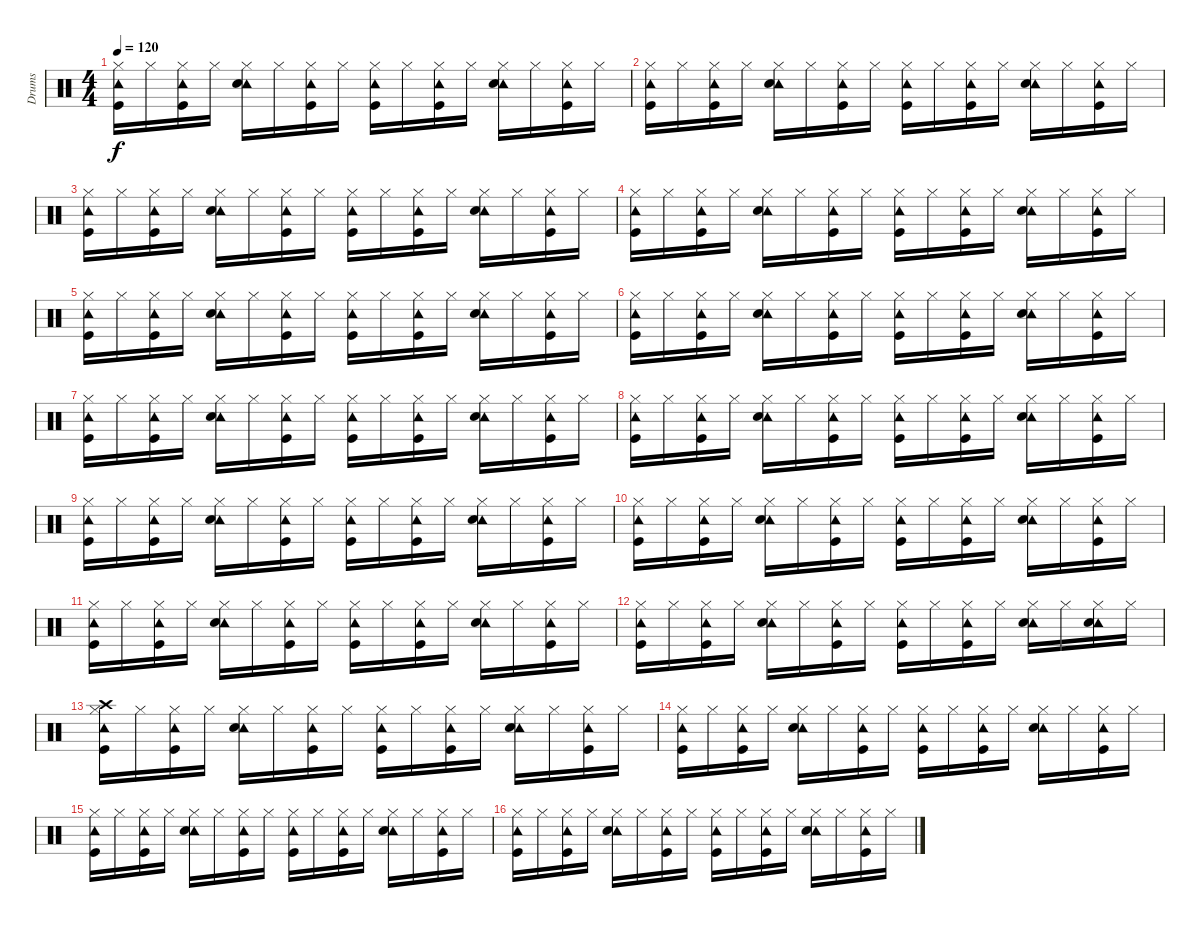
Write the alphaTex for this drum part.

\track ("Drums" "Drums") {instrument percussion}
\staff {score}
\articulation defaults
\ts (4 4)
\tempo 120
\clef neutral
\ks c
("Hi-Hat (closed)" "Tambourine (hit)" "Kick (hit)").16{dy f} "Hi-Hat (closed)".16 ("Hi-Hat (closed)" "Tambourine (hit)" "Kick (hit)").16 "Hi-Hat (closed)".16 ("Hi-Hat (closed)" "Tambourine (hit)" "Snare (hit) 2").16 "Hi-Hat (closed)".16 ("Hi-Hat (closed)" "Tambourine (hit)" "Kick (hit)").16 "Hi-Hat (closed)".16 ("Hi-Hat (closed)" "Tambourine (hit)" "Kick (hit)").16 "Hi-Hat (closed)".16 ("Hi-Hat (closed)" "Tambourine (hit)" "Kick (hit)").16 "Hi-Hat (closed)".16 ("Hi-Hat (closed)" "Tambourine (hit)" "Snare (hit) 2").16 "Hi-Hat (closed)".16 ("Hi-Hat (closed)" "Tambourine (hit)" "Kick (hit)").16 "Hi-Hat (closed)".16 |
("Hi-Hat (closed)" "Tambourine (hit)" "Kick (hit)").16 "Hi-Hat (closed)".16 ("Hi-Hat (closed)" "Tambourine (hit)" "Kick (hit)").16 "Hi-Hat (closed)".16 ("Hi-Hat (closed)" "Tambourine (hit)" "Snare (hit) 2").16 "Hi-Hat (closed)".16 ("Hi-Hat (closed)" "Tambourine (hit)" "Kick (hit)").16 "Hi-Hat (closed)".16 ("Hi-Hat (closed)" "Tambourine (hit)" "Kick (hit)").16 "Hi-Hat (closed)".16 ("Hi-Hat (closed)" "Tambourine (hit)" "Kick (hit)").16 "Hi-Hat (closed)".16 ("Hi-Hat (closed)" "Tambourine (hit)" "Snare (hit) 2").16 "Hi-Hat (closed)".16 ("Hi-Hat (closed)" "Tambourine (hit)" "Kick (hit)").16 "Hi-Hat (closed)".16 |
("Hi-Hat (closed)" "Tambourine (hit)" "Kick (hit)").16 "Hi-Hat (closed)".16 ("Hi-Hat (closed)" "Tambourine (hit)" "Kick (hit)").16 "Hi-Hat (closed)".16 ("Hi-Hat (closed)" "Tambourine (hit)" "Snare (hit) 2").16 "Hi-Hat (closed)".16 ("Hi-Hat (closed)" "Tambourine (hit)" "Kick (hit)").16 "Hi-Hat (closed)".16 ("Hi-Hat (closed)" "Tambourine (hit)" "Kick (hit)").16 "Hi-Hat (closed)".16 ("Hi-Hat (closed)" "Tambourine (hit)" "Kick (hit)").16 "Hi-Hat (closed)".16 ("Hi-Hat (closed)" "Tambourine (hit)" "Snare (hit) 2").16 "Hi-Hat (closed)".16 ("Hi-Hat (closed)" "Tambourine (hit)" "Kick (hit)").16 "Hi-Hat (closed)".16 |
("Hi-Hat (closed)" "Tambourine (hit)" "Kick (hit)").16 "Hi-Hat (closed)".16 ("Hi-Hat (closed)" "Tambourine (hit)" "Kick (hit)").16 "Hi-Hat (closed)".16 ("Hi-Hat (closed)" "Tambourine (hit)" "Snare (hit) 2").16 "Hi-Hat (closed)".16 ("Hi-Hat (closed)" "Tambourine (hit)" "Kick (hit)").16 "Hi-Hat (closed)".16 ("Hi-Hat (closed)" "Tambourine (hit)" "Kick (hit)").16 "Hi-Hat (closed)".16 ("Hi-Hat (closed)" "Tambourine (hit)" "Kick (hit)").16 "Hi-Hat (closed)".16 ("Hi-Hat (closed)" "Tambourine (hit)" "Snare (hit) 2").16 "Hi-Hat (closed)".16 ("Hi-Hat (closed)" "Tambourine (hit)" "Kick (hit)").16 "Hi-Hat (closed)".16 |
("Hi-Hat (closed)" "Tambourine (hit)" "Kick (hit)").16 "Hi-Hat (closed)".16 ("Hi-Hat (closed)" "Tambourine (hit)" "Kick (hit)").16 "Hi-Hat (closed)".16 ("Hi-Hat (closed)" "Tambourine (hit)" "Snare (hit) 2").16 "Hi-Hat (closed)".16 ("Hi-Hat (closed)" "Tambourine (hit)" "Kick (hit)").16 "Hi-Hat (closed)".16 ("Hi-Hat (closed)" "Tambourine (hit)" "Kick (hit)").16 "Hi-Hat (closed)".16 ("Hi-Hat (closed)" "Tambourine (hit)" "Kick (hit)").16 "Hi-Hat (closed)".16 ("Hi-Hat (closed)" "Tambourine (hit)" "Snare (hit) 2").16 "Hi-Hat (closed)".16 ("Hi-Hat (closed)" "Tambourine (hit)" "Kick (hit)").16 "Hi-Hat (closed)".16 |
("Hi-Hat (closed)" "Tambourine (hit)" "Kick (hit)").16 "Hi-Hat (closed)".16 ("Hi-Hat (closed)" "Tambourine (hit)" "Kick (hit)").16 "Hi-Hat (closed)".16 ("Hi-Hat (closed)" "Tambourine (hit)" "Snare (hit) 2").16 "Hi-Hat (closed)".16 ("Hi-Hat (closed)" "Tambourine (hit)" "Kick (hit)").16 "Hi-Hat (closed)".16 ("Hi-Hat (closed)" "Tambourine (hit)" "Kick (hit)").16 "Hi-Hat (closed)".16 ("Hi-Hat (closed)" "Tambourine (hit)" "Kick (hit)").16 "Hi-Hat (closed)".16 ("Hi-Hat (closed)" "Tambourine (hit)" "Snare (hit) 2").16 "Hi-Hat (closed)".16 ("Hi-Hat (closed)" "Tambourine (hit)" "Kick (hit)").16 "Hi-Hat (closed)".16 |
("Hi-Hat (closed)" "Tambourine (hit)" "Kick (hit)").16 "Hi-Hat (closed)".16 ("Hi-Hat (closed)" "Tambourine (hit)" "Kick (hit)").16 "Hi-Hat (closed)".16 ("Hi-Hat (closed)" "Tambourine (hit)" "Snare (hit) 2").16 "Hi-Hat (closed)".16 ("Hi-Hat (closed)" "Tambourine (hit)" "Kick (hit)").16 "Hi-Hat (closed)".16 ("Hi-Hat (closed)" "Tambourine (hit)" "Kick (hit)").16 "Hi-Hat (closed)".16 ("Hi-Hat (closed)" "Tambourine (hit)" "Kick (hit)").16 "Hi-Hat (closed)".16 ("Hi-Hat (closed)" "Tambourine (hit)" "Snare (hit) 2").16 "Hi-Hat (closed)".16 ("Hi-Hat (closed)" "Tambourine (hit)" "Kick (hit)").16 "Hi-Hat (closed)".16 |
("Hi-Hat (closed)" "Tambourine (hit)" "Kick (hit)").16 "Hi-Hat (closed)".16 ("Hi-Hat (closed)" "Tambourine (hit)" "Kick (hit)").16 "Hi-Hat (closed)".16 ("Hi-Hat (closed)" "Tambourine (hit)" "Snare (hit) 2").16 "Hi-Hat (closed)".16 ("Hi-Hat (closed)" "Tambourine (hit)" "Kick (hit)").16 "Hi-Hat (closed)".16 ("Hi-Hat (closed)" "Tambourine (hit)" "Kick (hit)").16 "Hi-Hat (closed)".16 ("Hi-Hat (closed)" "Tambourine (hit)" "Kick (hit)").16 "Hi-Hat (closed)".16 ("Hi-Hat (closed)" "Tambourine (hit)" "Snare (hit) 2").16 "Hi-Hat (closed)".16 ("Hi-Hat (closed)" "Tambourine (hit)" "Kick (hit)").16 "Hi-Hat (closed)".16 |
("Hi-Hat (closed)" "Tambourine (hit)" "Kick (hit)").16 "Hi-Hat (closed)".16 ("Hi-Hat (closed)" "Tambourine (hit)" "Kick (hit)").16 "Hi-Hat (closed)".16 ("Hi-Hat (closed)" "Tambourine (hit)" "Snare (hit) 2").16 "Hi-Hat (closed)".16 ("Hi-Hat (closed)" "Tambourine (hit)" "Kick (hit)").16 "Hi-Hat (closed)".16 ("Hi-Hat (closed)" "Tambourine (hit)" "Kick (hit)").16 "Hi-Hat (closed)".16 ("Hi-Hat (closed)" "Tambourine (hit)" "Kick (hit)").16 "Hi-Hat (closed)".16 ("Hi-Hat (closed)" "Tambourine (hit)" "Snare (hit) 2").16 "Hi-Hat (closed)".16 ("Hi-Hat (closed)" "Tambourine (hit)" "Kick (hit)").16 "Hi-Hat (closed)".16 |
("Hi-Hat (closed)" "Tambourine (hit)" "Kick (hit)").16 "Hi-Hat (closed)".16 ("Hi-Hat (closed)" "Tambourine (hit)" "Kick (hit)").16 "Hi-Hat (closed)".16 ("Hi-Hat (closed)" "Tambourine (hit)" "Snare (hit) 2").16 "Hi-Hat (closed)".16 ("Hi-Hat (closed)" "Tambourine (hit)" "Kick (hit)").16 "Hi-Hat (closed)".16 ("Hi-Hat (closed)" "Tambourine (hit)" "Kick (hit)").16 "Hi-Hat (closed)".16 ("Hi-Hat (closed)" "Tambourine (hit)" "Kick (hit)").16 "Hi-Hat (closed)".16 ("Hi-Hat (closed)" "Tambourine (hit)" "Snare (hit) 2").16 "Hi-Hat (closed)".16 ("Hi-Hat (closed)" "Tambourine (hit)" "Kick (hit)").16 "Hi-Hat (closed)".16 |
("Hi-Hat (closed)" "Tambourine (hit)" "Kick (hit)").16 "Hi-Hat (closed)".16 ("Hi-Hat (closed)" "Tambourine (hit)" "Kick (hit)").16 "Hi-Hat (closed)".16 ("Hi-Hat (closed)" "Tambourine (hit)" "Snare (hit) 2").16 "Hi-Hat (closed)".16 ("Hi-Hat (closed)" "Tambourine (hit)" "Kick (hit)").16 "Hi-Hat (closed)".16 ("Hi-Hat (closed)" "Tambourine (hit)" "Kick (hit)").16 "Hi-Hat (closed)".16 ("Hi-Hat (closed)" "Tambourine (hit)" "Kick (hit)").16 "Hi-Hat (closed)".16 ("Hi-Hat (closed)" "Tambourine (hit)" "Snare (hit) 2").16 "Hi-Hat (closed)".16 ("Hi-Hat (closed)" "Tambourine (hit)" "Kick (hit)").16 "Hi-Hat (closed)".16 |
("Hi-Hat (closed)" "Tambourine (hit)" "Kick (hit)").16 "Hi-Hat (closed)".16 ("Hi-Hat (closed)" "Tambourine (hit)" "Kick (hit)").16 "Hi-Hat (closed)".16 ("Hi-Hat (closed)" "Tambourine (hit)" "Snare (hit) 2").16 "Hi-Hat (closed)".16 ("Hi-Hat (closed)" "Tambourine (hit)" "Kick (hit)").16 "Hi-Hat (closed)".16 ("Hi-Hat (closed)" "Tambourine (hit)" "Kick (hit)").16 "Hi-Hat (closed)".16 ("Hi-Hat (closed)" "Tambourine (hit)" "Kick (hit)").16 "Hi-Hat (closed)".16 ("Hi-Hat (closed)" "Tambourine (hit)" "Snare (hit) 2").16 "Hi-Hat (closed)".16 ("Hi-Hat (closed)" "Tambourine (hit)" "Snare (hit) 2").16 "Hi-Hat (closed)".16 |
("Crash high (hit)" "Hi-Hat (closed)" "Tambourine (hit)" "Kick (hit)").16 "Hi-Hat (closed)".16 ("Hi-Hat (closed)" "Tambourine (hit)" "Kick (hit)").16 "Hi-Hat (closed)".16 ("Hi-Hat (closed)" "Tambourine (hit)" "Snare (hit) 2").16 "Hi-Hat (closed)".16 ("Hi-Hat (closed)" "Tambourine (hit)" "Kick (hit)").16 "Hi-Hat (closed)".16 ("Hi-Hat (closed)" "Tambourine (hit)" "Kick (hit)").16 "Hi-Hat (closed)".16 ("Hi-Hat (closed)" "Tambourine (hit)" "Kick (hit)").16 "Hi-Hat (closed)".16 ("Hi-Hat (closed)" "Tambourine (hit)" "Snare (hit) 2").16 "Hi-Hat (closed)".16 ("Hi-Hat (closed)" "Tambourine (hit)" "Kick (hit)").16 "Hi-Hat (closed)".16 |
("Hi-Hat (closed)" "Tambourine (hit)" "Kick (hit)").16 "Hi-Hat (closed)".16 ("Hi-Hat (closed)" "Tambourine (hit)" "Kick (hit)").16 "Hi-Hat (closed)".16 ("Hi-Hat (closed)" "Tambourine (hit)" "Snare (hit) 2").16 "Hi-Hat (closed)".16 ("Hi-Hat (closed)" "Tambourine (hit)" "Kick (hit)").16 "Hi-Hat (closed)".16 ("Hi-Hat (closed)" "Tambourine (hit)" "Kick (hit)").16 "Hi-Hat (closed)".16 ("Hi-Hat (closed)" "Tambourine (hit)" "Kick (hit)").16 "Hi-Hat (closed)".16 ("Hi-Hat (closed)" "Tambourine (hit)" "Snare (hit) 2").16 "Hi-Hat (closed)".16 ("Hi-Hat (closed)" "Tambourine (hit)" "Kick (hit)").16 "Hi-Hat (closed)".16 |
("Hi-Hat (closed)" "Tambourine (hit)" "Kick (hit)").16 "Hi-Hat (closed)".16 ("Hi-Hat (closed)" "Tambourine (hit)" "Kick (hit)").16 "Hi-Hat (closed)".16 ("Hi-Hat (closed)" "Tambourine (hit)" "Snare (hit) 2").16 "Hi-Hat (closed)".16 ("Hi-Hat (closed)" "Tambourine (hit)" "Kick (hit)").16 "Hi-Hat (closed)".16 ("Hi-Hat (closed)" "Tambourine (hit)" "Kick (hit)").16 "Hi-Hat (closed)".16 ("Hi-Hat (closed)" "Tambourine (hit)" "Kick (hit)").16 "Hi-Hat (closed)".16 ("Hi-Hat (closed)" "Tambourine (hit)" "Snare (hit) 2").16 "Hi-Hat (closed)".16 ("Hi-Hat (closed)" "Tambourine (hit)" "Kick (hit)").16 "Hi-Hat (closed)".16 |
("Hi-Hat (closed)" "Tambourine (hit)" "Kick (hit)").16 "Hi-Hat (closed)".16 ("Hi-Hat (closed)" "Tambourine (hit)" "Kick (hit)").16 "Hi-Hat (closed)".16 ("Hi-Hat (closed)" "Tambourine (hit)" "Snare (hit) 2").16 "Hi-Hat (closed)".16 ("Hi-Hat (closed)" "Tambourine (hit)" "Kick (hit)").16 "Hi-Hat (closed)".16 ("Hi-Hat (closed)" "Tambourine (hit)" "Kick (hit)").16 "Hi-Hat (closed)".16 ("Hi-Hat (closed)" "Tambourine (hit)" "Kick (hit)").16 "Hi-Hat (closed)".16 ("Hi-Hat (closed)" "Tambourine (hit)" "Snare (hit) 2").16 "Hi-Hat (closed)".16 ("Hi-Hat (closed)" "Tambourine (hit)" "Kick (hit)").16 "Hi-Hat (closed)".16
